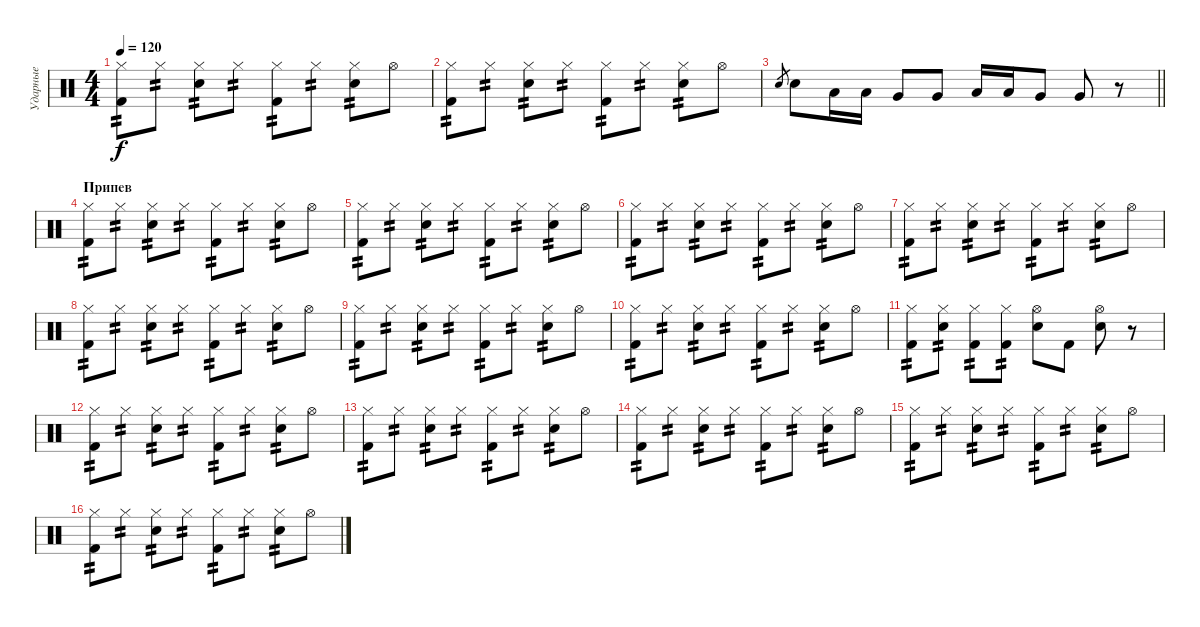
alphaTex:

\track ("Ударные" "Ударные") {instrument percussion}
\staff {score}
\articulation defaults
\ts (4 4)
\tempo 120
\clef neutral
\ks c
("Hi-Hat (closed)" "Kick (hit) 2").8{tp 2 dy f} "Hi-Hat (closed)".8{tp 2} ("Hi-Hat (closed)" "Snare (hit) 2").8{tp 2} "Hi-Hat (closed)".8{tp 2} ("Hi-Hat (closed)" "Kick (hit) 2").8{tp 2} "Hi-Hat (closed)".8{tp 2} ("Hi-Hat (closed)" "Snare (hit) 2").8{tp 2} "Hi-Hat (open)".8 |
("Hi-Hat (closed)" "Kick (hit) 2").8{tp 2} "Hi-Hat (closed)".8{tp 2} ("Hi-Hat (closed)" "Snare (hit) 2").8{tp 2} "Hi-Hat (closed)".8{tp 2} ("Hi-Hat (closed)" "Kick (hit) 2").8{tp 2} "Hi-Hat (closed)".8{tp 2} ("Hi-Hat (closed)" "Snare (hit) 2").8{tp 2} "Hi-Hat (open)".8 |
\barLineRight lightlight "Snare (hit) 2".8{gr} "Snare (hit) 2".8 "Low Tom (hit)".16 "Low Tom (hit)".16 "Very Low Tom (hit)".8 "Very Low Tom (hit)".8 "Low Tom (hit)".16 "Low Tom (hit)".16 "Very Low Tom (hit)".8 "Very Low Tom (hit)".8
r.8 |
\section ("" "Припев")
("Hi-Hat (closed)" "Kick (hit) 2").8{tp 2} "Hi-Hat (closed)".8{tp 2} ("Hi-Hat (closed)" "Snare (hit) 2").8{tp 2} "Hi-Hat (closed)".8{tp 2} ("Hi-Hat (closed)" "Kick (hit) 2").8{tp 2} "Hi-Hat (closed)".8{tp 2} ("Hi-Hat (closed)" "Snare (hit) 2").8{tp 2} "Hi-Hat (open)".8 |
("Hi-Hat (closed)" "Kick (hit) 2").8{tp 2} "Hi-Hat (closed)".8{tp 2} ("Hi-Hat (closed)" "Snare (hit) 2").8{tp 2} "Hi-Hat (closed)".8{tp 2} ("Hi-Hat (closed)" "Kick (hit) 2").8{tp 2} "Hi-Hat (closed)".8{tp 2} ("Hi-Hat (closed)" "Snare (hit) 2").8{tp 2} "Hi-Hat (open)".8 |
("Hi-Hat (closed)" "Kick (hit) 2").8{tp 2} "Hi-Hat (closed)".8{tp 2} ("Hi-Hat (closed)" "Snare (hit) 2").8{tp 2} "Hi-Hat (closed)".8{tp 2} ("Hi-Hat (closed)" "Kick (hit) 2").8{tp 2} "Hi-Hat (closed)".8{tp 2} ("Hi-Hat (closed)" "Snare (hit) 2").8{tp 2} "Hi-Hat (open)".8 |
("Hi-Hat (closed)" "Kick (hit) 2").8{tp 2} "Hi-Hat (closed)".8{tp 2} ("Hi-Hat (closed)" "Snare (hit) 2").8{tp 2} "Hi-Hat (closed)".8{tp 2} ("Hi-Hat (closed)" "Kick (hit) 2").8{tp 2} "Hi-Hat (closed)".8{tp 2} ("Hi-Hat (closed)" "Snare (hit) 2").8{tp 2} "Hi-Hat (open)".8 |
("Hi-Hat (closed)" "Kick (hit) 2").8{tp 2} "Hi-Hat (closed)".8{tp 2} ("Hi-Hat (closed)" "Snare (hit) 2").8{tp 2} "Hi-Hat (closed)".8{tp 2} ("Hi-Hat (closed)" "Kick (hit) 2").8{tp 2} "Hi-Hat (closed)".8{tp 2} ("Hi-Hat (closed)" "Snare (hit) 2").8{tp 2} "Hi-Hat (open)".8 |
("Hi-Hat (closed)" "Kick (hit) 2").8{tp 2} "Hi-Hat (closed)".8{tp 2} ("Hi-Hat (closed)" "Snare (hit) 2").8{tp 2} "Hi-Hat (closed)".8{tp 2} ("Hi-Hat (closed)" "Kick (hit) 2").8{tp 2} "Hi-Hat (closed)".8{tp 2} ("Hi-Hat (closed)" "Snare (hit) 2").8{tp 2} "Hi-Hat (open)".8 |
("Hi-Hat (closed)" "Kick (hit) 2").8{tp 2} "Hi-Hat (closed)".8{tp 2} ("Hi-Hat (closed)" "Snare (hit) 2").8{tp 2} "Hi-Hat (closed)".8{tp 2} ("Hi-Hat (closed)" "Kick (hit) 2").8{tp 2} "Hi-Hat (closed)".8{tp 2} ("Hi-Hat (closed)" "Snare (hit) 2").8{tp 2} "Hi-Hat (open)".8 |
("Hi-Hat (closed)" "Kick (hit) 2").8{tp 2} ("Hi-Hat (closed)" "Snare (hit) 2").8{tp 2} ("Hi-Hat (closed)" "Kick (hit) 2").8{tp 2} ("Hi-Hat (closed)" "Kick (hit) 2").8{tp 2} ("Hi-Hat (open)" "Snare (hit) 2").8 "Kick (hit) 2".8 ("Hi-Hat (open)" "Snare (hit) 2").8 r.8 |
("Hi-Hat (closed)" "Kick (hit) 2").8{tp 2} "Hi-Hat (closed)".8{tp 2} ("Hi-Hat (closed)" "Snare (hit) 2").8{tp 2} "Hi-Hat (closed)".8{tp 2} ("Hi-Hat (closed)" "Kick (hit) 2").8{tp 2} "Hi-Hat (closed)".8{tp 2} ("Hi-Hat (closed)" "Snare (hit) 2").8{tp 2} "Hi-Hat (open)".8 |
("Hi-Hat (closed)" "Kick (hit) 2").8{tp 2} "Hi-Hat (closed)".8{tp 2} ("Hi-Hat (closed)" "Snare (hit) 2").8{tp 2} "Hi-Hat (closed)".8{tp 2} ("Hi-Hat (closed)" "Kick (hit) 2").8{tp 2} "Hi-Hat (closed)".8{tp 2} ("Hi-Hat (closed)" "Snare (hit) 2").8{tp 2} "Hi-Hat (open)".8 |
("Hi-Hat (closed)" "Kick (hit) 2").8{tp 2} "Hi-Hat (closed)".8{tp 2} ("Hi-Hat (closed)" "Snare (hit) 2").8{tp 2} "Hi-Hat (closed)".8{tp 2} ("Hi-Hat (closed)" "Kick (hit) 2").8{tp 2} "Hi-Hat (closed)".8{tp 2} ("Hi-Hat (closed)" "Snare (hit) 2").8{tp 2} "Hi-Hat (open)".8 |
("Hi-Hat (closed)" "Kick (hit) 2").8{tp 2} "Hi-Hat (closed)".8{tp 2} ("Hi-Hat (closed)" "Snare (hit) 2").8{tp 2} "Hi-Hat (closed)".8{tp 2} ("Hi-Hat (closed)" "Kick (hit) 2").8{tp 2} "Hi-Hat (closed)".8{tp 2} ("Hi-Hat (closed)" "Snare (hit) 2").8{tp 2} "Hi-Hat (open)".8 |
("Hi-Hat (closed)" "Kick (hit) 2").8{tp 2} "Hi-Hat (closed)".8{tp 2} ("Hi-Hat (closed)" "Snare (hit) 2").8{tp 2} "Hi-Hat (closed)".8{tp 2} ("Hi-Hat (closed)" "Kick (hit) 2").8{tp 2} "Hi-Hat (closed)".8{tp 2} ("Hi-Hat (closed)" "Snare (hit) 2").8{tp 2} "Hi-Hat (open)".8
